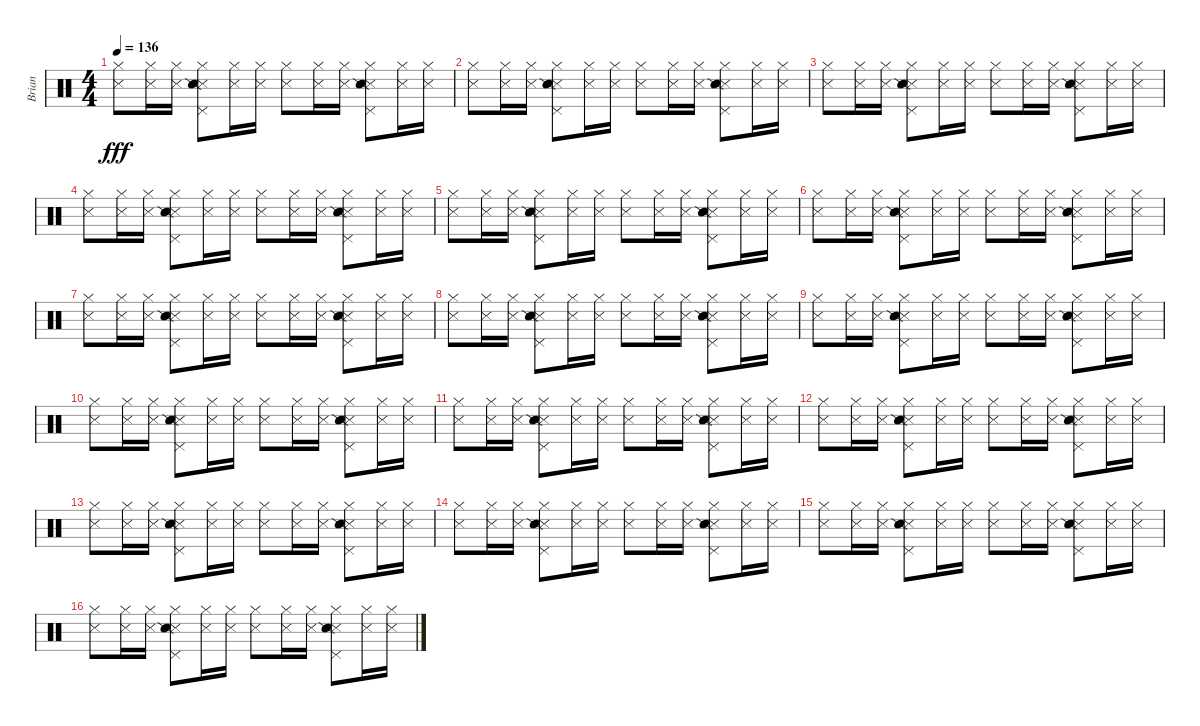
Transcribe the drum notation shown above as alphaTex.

\track ("Brian" "Brian") {instrument percussion}
\staff {score}
\articulation defaults
\ts (4 4)
\tempo 136
\clef neutral
\ks c
("Hi-Hat (closed)" "Metronome (hit)").8{dy fff} ("Hi-Hat (closed)" "Metronome (hit)").16 ("Hi-Hat (closed)" "Metronome (hit)").16 ("Pedal Hi-Hat (hit)" "Snare (side stick) 3" "Hi-Hat (closed)" "Snare (side stick) 2").8 ("Hi-Hat (closed)" "Metronome (hit)").16 ("Hi-Hat (closed)" "Metronome (hit)").16 ("Hi-Hat (closed)" "Metronome (hit)").8 ("Hi-Hat (closed)" "Metronome (hit)").16 ("Hi-Hat (closed)" "Metronome (hit)").16 ("Pedal Hi-Hat (hit)" "Snare (side stick) 3" "Hi-Hat (closed)" "Snare (side stick) 2").8 ("Hi-Hat (closed)" "Metronome (hit)").16 ("Hi-Hat (closed)" "Metronome (hit)").16 |
("Hi-Hat (closed)" "Metronome (hit)").8 ("Hi-Hat (closed)" "Metronome (hit)").16 ("Hi-Hat (closed)" "Metronome (hit)").16 ("Pedal Hi-Hat (hit)" "Snare (side stick) 3" "Hi-Hat (closed)" "Snare (side stick) 2").8 ("Hi-Hat (closed)" "Metronome (hit)").16 ("Hi-Hat (closed)" "Metronome (hit)").16 ("Hi-Hat (closed)" "Metronome (hit)").8 ("Hi-Hat (closed)" "Metronome (hit)").16 ("Hi-Hat (closed)" "Metronome (hit)").16 ("Pedal Hi-Hat (hit)" "Snare (side stick) 3" "Hi-Hat (closed)" "Snare (side stick) 2").8 ("Hi-Hat (closed)" "Metronome (hit)").16 ("Hi-Hat (closed)" "Metronome (hit)").16 |
("Hi-Hat (closed)" "Metronome (hit)").8 ("Hi-Hat (closed)" "Metronome (hit)").16 ("Hi-Hat (closed)" "Metronome (hit)").16 ("Pedal Hi-Hat (hit)" "Snare (side stick) 3" "Hi-Hat (closed)" "Snare (side stick) 2").8 ("Hi-Hat (closed)" "Metronome (hit)").16 ("Hi-Hat (closed)" "Metronome (hit)").16 ("Hi-Hat (closed)" "Metronome (hit)").8 ("Hi-Hat (closed)" "Metronome (hit)").16 ("Hi-Hat (closed)" "Metronome (hit)").16 ("Pedal Hi-Hat (hit)" "Snare (side stick) 3" "Hi-Hat (closed)" "Snare (side stick) 2").8 ("Hi-Hat (closed)" "Metronome (hit)").16 ("Hi-Hat (closed)" "Metronome (hit)").16 |
("Hi-Hat (closed)" "Metronome (hit)").8 ("Hi-Hat (closed)" "Metronome (hit)").16 ("Hi-Hat (closed)" "Metronome (hit)").16 ("Pedal Hi-Hat (hit)" "Snare (side stick) 3" "Hi-Hat (closed)" "Snare (side stick) 2").8 ("Hi-Hat (closed)" "Metronome (hit)").16 ("Hi-Hat (closed)" "Metronome (hit)").16 ("Hi-Hat (closed)" "Metronome (hit)").8 ("Hi-Hat (closed)" "Metronome (hit)").16 ("Hi-Hat (closed)" "Metronome (hit)").16 ("Pedal Hi-Hat (hit)" "Snare (side stick) 3" "Hi-Hat (closed)" "Snare (side stick) 2").8 ("Hi-Hat (closed)" "Metronome (hit)").16 ("Hi-Hat (closed)" "Metronome (hit)").16 |
("Hi-Hat (closed)" "Metronome (hit)").8 ("Hi-Hat (closed)" "Metronome (hit)").16 ("Hi-Hat (closed)" "Metronome (hit)").16 ("Pedal Hi-Hat (hit)" "Snare (side stick) 3" "Hi-Hat (closed)" "Snare (side stick) 2").8 ("Hi-Hat (closed)" "Metronome (hit)").16 ("Hi-Hat (closed)" "Metronome (hit)").16 ("Hi-Hat (closed)" "Metronome (hit)").8 ("Hi-Hat (closed)" "Metronome (hit)").16 ("Hi-Hat (closed)" "Metronome (hit)").16 ("Pedal Hi-Hat (hit)" "Snare (side stick) 3" "Hi-Hat (closed)" "Snare (side stick) 2").8 ("Hi-Hat (closed)" "Metronome (hit)").16 ("Hi-Hat (closed)" "Metronome (hit)").16 |
("Hi-Hat (closed)" "Metronome (hit)").8 ("Hi-Hat (closed)" "Metronome (hit)").16 ("Hi-Hat (closed)" "Metronome (hit)").16 ("Pedal Hi-Hat (hit)" "Snare (side stick) 3" "Hi-Hat (closed)" "Snare (side stick) 2").8 ("Hi-Hat (closed)" "Metronome (hit)").16 ("Hi-Hat (closed)" "Metronome (hit)").16 ("Hi-Hat (closed)" "Metronome (hit)").8 ("Hi-Hat (closed)" "Metronome (hit)").16 ("Hi-Hat (closed)" "Metronome (hit)").16 ("Pedal Hi-Hat (hit)" "Snare (side stick) 3" "Hi-Hat (closed)" "Snare (side stick) 2").8 ("Hi-Hat (closed)" "Metronome (hit)").16 ("Hi-Hat (closed)" "Metronome (hit)").16 |
("Hi-Hat (closed)" "Metronome (hit)").8 ("Hi-Hat (closed)" "Metronome (hit)").16 ("Hi-Hat (closed)" "Metronome (hit)").16 ("Pedal Hi-Hat (hit)" "Snare (side stick) 3" "Hi-Hat (closed)" "Snare (side stick) 2").8 ("Hi-Hat (closed)" "Metronome (hit)").16 ("Hi-Hat (closed)" "Metronome (hit)").16 ("Hi-Hat (closed)" "Metronome (hit)").8 ("Hi-Hat (closed)" "Metronome (hit)").16 ("Hi-Hat (closed)" "Metronome (hit)").16 ("Pedal Hi-Hat (hit)" "Snare (side stick) 3" "Hi-Hat (closed)" "Snare (side stick) 2").8 ("Hi-Hat (closed)" "Metronome (hit)").16 ("Hi-Hat (closed)" "Metronome (hit)").16 |
("Hi-Hat (closed)" "Metronome (hit)").8 ("Hi-Hat (closed)" "Metronome (hit)").16 ("Hi-Hat (closed)" "Metronome (hit)").16 ("Pedal Hi-Hat (hit)" "Snare (side stick) 3" "Hi-Hat (closed)" "Snare (side stick) 2").8 ("Hi-Hat (closed)" "Metronome (hit)").16 ("Hi-Hat (closed)" "Metronome (hit)").16 ("Hi-Hat (closed)" "Metronome (hit)").8 ("Hi-Hat (closed)" "Metronome (hit)").16 ("Hi-Hat (closed)" "Metronome (hit)").16 ("Pedal Hi-Hat (hit)" "Snare (side stick) 3" "Hi-Hat (closed)" "Snare (side stick) 2").8 ("Hi-Hat (closed)" "Metronome (hit)").16 ("Hi-Hat (closed)" "Metronome (hit)").16 |
("Hi-Hat (closed)" "Metronome (hit)").8 ("Hi-Hat (closed)" "Metronome (hit)").16 ("Hi-Hat (closed)" "Metronome (hit)").16 ("Pedal Hi-Hat (hit)" "Snare (side stick) 3" "Hi-Hat (closed)" "Snare (side stick) 2").8 ("Hi-Hat (closed)" "Metronome (hit)").16 ("Hi-Hat (closed)" "Metronome (hit)").16 ("Hi-Hat (closed)" "Metronome (hit)").8 ("Hi-Hat (closed)" "Metronome (hit)").16 ("Hi-Hat (closed)" "Metronome (hit)").16 ("Pedal Hi-Hat (hit)" "Snare (side stick) 3" "Hi-Hat (closed)" "Snare (side stick) 2").8 ("Hi-Hat (closed)" "Metronome (hit)").16 ("Hi-Hat (closed)" "Metronome (hit)").16 |
("Hi-Hat (closed)" "Metronome (hit)").8 ("Hi-Hat (closed)" "Metronome (hit)").16 ("Hi-Hat (closed)" "Metronome (hit)").16 ("Pedal Hi-Hat (hit)" "Snare (side stick) 3" "Hi-Hat (closed)" "Snare (side stick) 2").8 ("Hi-Hat (closed)" "Metronome (hit)").16 ("Hi-Hat (closed)" "Metronome (hit)").16 ("Hi-Hat (closed)" "Metronome (hit)").8 ("Hi-Hat (closed)" "Metronome (hit)").16 ("Hi-Hat (closed)" "Metronome (hit)").16 ("Pedal Hi-Hat (hit)" "Snare (side stick) 3" "Hi-Hat (closed)" "Snare (side stick) 2").8 ("Hi-Hat (closed)" "Metronome (hit)").16 ("Hi-Hat (closed)" "Metronome (hit)").16 |
("Hi-Hat (closed)" "Metronome (hit)").8 ("Hi-Hat (closed)" "Metronome (hit)").16 ("Hi-Hat (closed)" "Metronome (hit)").16 ("Pedal Hi-Hat (hit)" "Snare (side stick) 3" "Hi-Hat (closed)" "Snare (side stick) 2").8 ("Hi-Hat (closed)" "Metronome (hit)").16 ("Hi-Hat (closed)" "Metronome (hit)").16 ("Hi-Hat (closed)" "Metronome (hit)").8 ("Hi-Hat (closed)" "Metronome (hit)").16 ("Hi-Hat (closed)" "Metronome (hit)").16 ("Pedal Hi-Hat (hit)" "Snare (side stick) 3" "Hi-Hat (closed)" "Snare (side stick) 2").8 ("Hi-Hat (closed)" "Metronome (hit)").16 ("Hi-Hat (closed)" "Metronome (hit)").16 |
("Hi-Hat (closed)" "Metronome (hit)").8 ("Hi-Hat (closed)" "Metronome (hit)").16 ("Hi-Hat (closed)" "Metronome (hit)").16 ("Pedal Hi-Hat (hit)" "Snare (side stick) 3" "Hi-Hat (closed)" "Snare (side stick) 2").8 ("Hi-Hat (closed)" "Metronome (hit)").16 ("Hi-Hat (closed)" "Metronome (hit)").16 ("Hi-Hat (closed)" "Metronome (hit)").8 ("Hi-Hat (closed)" "Metronome (hit)").16 ("Hi-Hat (closed)" "Metronome (hit)").16 ("Pedal Hi-Hat (hit)" "Snare (side stick) 3" "Hi-Hat (closed)" "Snare (side stick) 2").8 ("Hi-Hat (closed)" "Metronome (hit)").16 ("Hi-Hat (closed)" "Metronome (hit)").16 |
("Hi-Hat (closed)" "Metronome (hit)").8 ("Hi-Hat (closed)" "Metronome (hit)").16 ("Hi-Hat (closed)" "Metronome (hit)").16 ("Pedal Hi-Hat (hit)" "Snare (side stick) 3" "Hi-Hat (closed)" "Snare (side stick) 2").8 ("Hi-Hat (closed)" "Metronome (hit)").16 ("Hi-Hat (closed)" "Metronome (hit)").16 ("Hi-Hat (closed)" "Metronome (hit)").8 ("Hi-Hat (closed)" "Metronome (hit)").16 ("Hi-Hat (closed)" "Metronome (hit)").16 ("Pedal Hi-Hat (hit)" "Snare (side stick) 3" "Hi-Hat (closed)" "Snare (side stick) 2").8 ("Hi-Hat (closed)" "Metronome (hit)").16 ("Hi-Hat (closed)" "Metronome (hit)").16 |
("Hi-Hat (closed)" "Metronome (hit)").8 ("Hi-Hat (closed)" "Metronome (hit)").16 ("Hi-Hat (closed)" "Metronome (hit)").16 ("Pedal Hi-Hat (hit)" "Snare (side stick) 3" "Hi-Hat (closed)" "Snare (side stick) 2").8 ("Hi-Hat (closed)" "Metronome (hit)").16 ("Hi-Hat (closed)" "Metronome (hit)").16 ("Hi-Hat (closed)" "Metronome (hit)").8 ("Hi-Hat (closed)" "Metronome (hit)").16 ("Hi-Hat (closed)" "Metronome (hit)").16 ("Pedal Hi-Hat (hit)" "Snare (side stick) 3" "Hi-Hat (closed)" "Snare (side stick) 2").8 ("Hi-Hat (closed)" "Metronome (hit)").16 ("Hi-Hat (closed)" "Metronome (hit)").16 |
("Hi-Hat (closed)" "Metronome (hit)").8 ("Hi-Hat (closed)" "Metronome (hit)").16 ("Hi-Hat (closed)" "Metronome (hit)").16 ("Pedal Hi-Hat (hit)" "Snare (side stick) 3" "Hi-Hat (closed)" "Snare (side stick) 2").8 ("Hi-Hat (closed)" "Metronome (hit)").16 ("Hi-Hat (closed)" "Metronome (hit)").16 ("Hi-Hat (closed)" "Metronome (hit)").8 ("Hi-Hat (closed)" "Metronome (hit)").16 ("Hi-Hat (closed)" "Metronome (hit)").16 ("Pedal Hi-Hat (hit)" "Snare (side stick) 3" "Hi-Hat (closed)" "Snare (side stick) 2").8 ("Hi-Hat (closed)" "Metronome (hit)").16 ("Hi-Hat (closed)" "Metronome (hit)").16 |
("Hi-Hat (closed)" "Metronome (hit)").8 ("Hi-Hat (closed)" "Metronome (hit)").16 ("Hi-Hat (closed)" "Metronome (hit)").16 ("Pedal Hi-Hat (hit)" "Snare (side stick) 3" "Hi-Hat (closed)" "Snare (side stick) 2").8 ("Hi-Hat (closed)" "Metronome (hit)").16 ("Hi-Hat (closed)" "Metronome (hit)").16 ("Hi-Hat (closed)" "Metronome (hit)").8 ("Hi-Hat (closed)" "Metronome (hit)").16 ("Hi-Hat (closed)" "Metronome (hit)").16 ("Pedal Hi-Hat (hit)" "Snare (side stick) 3" "Hi-Hat (closed)" "Snare (side stick) 2").8 ("Hi-Hat (closed)" "Metronome (hit)").16 ("Hi-Hat (closed)" "Metronome (hit)").16
